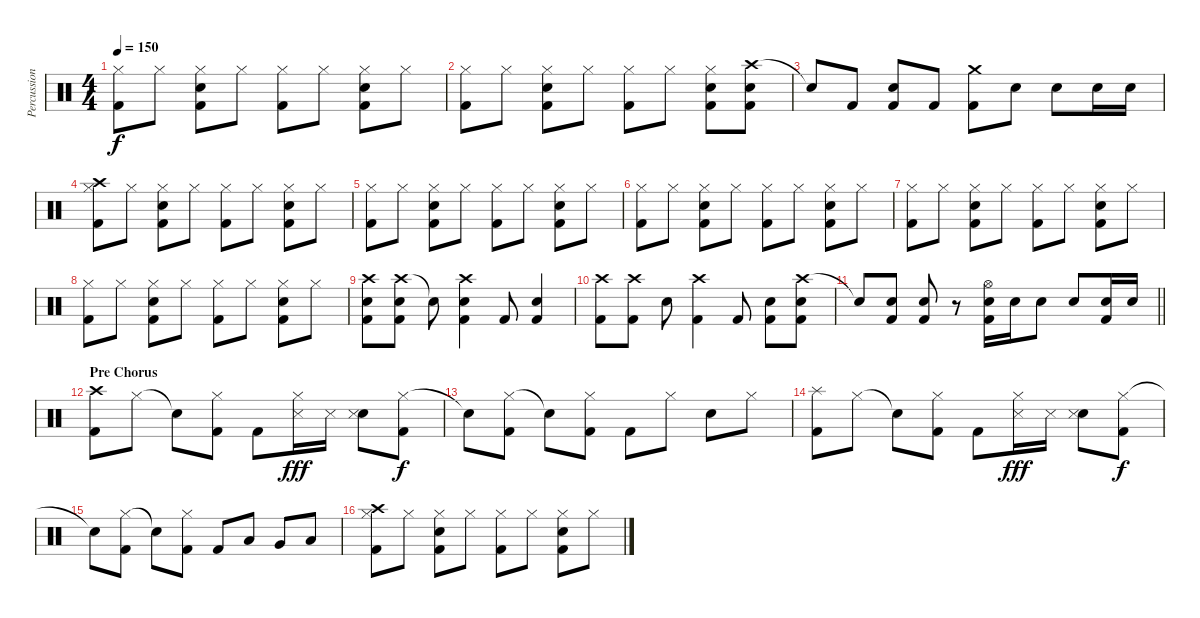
\track ("Percussion" "Percussion") {instrument percussion}
\staff {score}
\articulation defaults
\ts (4 4)
\tempo 150
\clef neutral
\ks c
("Hi-Hat (closed)" "Kick (hit) 2").8{dy f} "Hi-Hat (closed)".8 ("Hi-Hat (closed)" "Snare (hit) 2" "Kick (hit) 2").8 "Hi-Hat (closed)".8 ("Hi-Hat (closed)" "Kick (hit) 2").8 "Hi-Hat (closed)".8 ("Hi-Hat (closed)" "Snare (hit) 2" "Kick (hit) 2").8 "Hi-Hat (closed)".8 |
("Hi-Hat (closed)" "Kick (hit) 2").8 "Hi-Hat (closed)".8 ("Hi-Hat (closed)" "Snare (hit) 2" "Kick (hit) 2").8 "Hi-Hat (closed)".8 ("Hi-Hat (closed)" "Kick (hit) 2").8 "Hi-Hat (closed)".8 ("Hi-Hat (closed)" "Snare (hit) 2" "Kick (hit) 2").8 ("Crash high (hit)" "Snare (hit) 2" "Kick (hit) 2").8 |
"Snare (hit)"{t}.8 "Kick (hit) 2".8 ("Snare (hit) 2" "Kick (hit) 2").8 "Kick (hit) 2".8 ("Crash medium (hit)" "Kick (hit) 2").8 "Snare (hit) 2".8 "Snare (hit) 2".8 "Snare (hit) 2".16 "Snare (hit) 2".16 |
("Hi-Hat (closed)" "Crash high (hit)" "Kick (hit) 2").8 "Hi-Hat (closed)".8 ("Hi-Hat (closed)" "Snare (hit) 2" "Kick (hit) 2").8 "Hi-Hat (closed)".8 ("Hi-Hat (closed)" "Kick (hit) 2").8 "Hi-Hat (closed)".8 ("Hi-Hat (closed)" "Snare (hit) 2" "Kick (hit) 2").8 "Hi-Hat (closed)".8 |
("Hi-Hat (closed)" "Kick (hit) 2").8 "Hi-Hat (closed)".8 ("Hi-Hat (closed)" "Snare (hit) 2" "Kick (hit) 2").8 "Hi-Hat (closed)".8 ("Hi-Hat (closed)" "Kick (hit) 2").8 "Hi-Hat (closed)".8 ("Hi-Hat (closed)" "Snare (hit) 2" "Kick (hit) 2").8 "Hi-Hat (closed)".8 |
("Hi-Hat (closed)" "Kick (hit) 2").8 "Hi-Hat (closed)".8 ("Hi-Hat (closed)" "Snare (hit) 2" "Kick (hit) 2").8 "Hi-Hat (closed)".8 ("Hi-Hat (closed)" "Kick (hit) 2").8 "Hi-Hat (closed)".8 ("Hi-Hat (closed)" "Snare (hit) 2" "Kick (hit) 2").8 "Hi-Hat (closed)".8 |
("Hi-Hat (closed)" "Kick (hit) 2").8 "Hi-Hat (closed)".8 ("Hi-Hat (closed)" "Snare (hit) 2" "Kick (hit) 2").8 "Hi-Hat (closed)".8 ("Hi-Hat (closed)" "Kick (hit) 2").8 "Hi-Hat (closed)".8 ("Hi-Hat (closed)" "Snare (hit) 2" "Kick (hit) 2").8 "Hi-Hat (closed)".8 |
("Hi-Hat (closed)" "Kick (hit) 2").8 "Hi-Hat (closed)".8 ("Hi-Hat (closed)" "Snare (hit) 2" "Kick (hit) 2").8 "Hi-Hat (closed)".8 ("Hi-Hat (closed)" "Kick (hit) 2").8 "Hi-Hat (closed)".8 ("Hi-Hat (closed)" "Snare (hit) 2" "Kick (hit) 2").8 "Hi-Hat (closed)".8 |
("Crash high (hit)" "Snare (hit) 2" "Kick (hit) 2").8 ("Crash high (hit)" "Snare (hit) 2" "Kick (hit) 2").8 "Snare (hit)"{t}.8 ("Crash high (hit)" "Snare (hit) 2" "Kick (hit) 2").4 "Kick (hit) 2".8 ("Snare (hit) 2" "Kick (hit) 2").4 |
("Crash high (hit)" "Kick (hit) 2").8 ("Crash high (hit)" "Kick (hit) 2").8 "Snare (hit) 2".8 ("Crash high (hit)" "Kick (hit) 2").4 "Kick (hit) 2".8 ("Snare (hit) 2" "Kick (hit) 2").8 ("Crash high (hit)" "Snare (hit) 2" "Kick (hit) 2").8 |
\barLineRight lightlight "Snare (hit)"{t}.8
("Snare (hit) 2" "Kick (hit) 2").8 ("Snare (hit) 2" "Kick (hit) 2").8 r.8 ("Hi-Hat (open)" "Snare (hit) 2" "Kick (hit) 2").16 "Snare (hit) 2".16 "Snare (hit) 2".8 "Snare (hit) 2".8 ("Snare (hit) 2" "Kick (hit) 2").16 "Snare (hit) 2".16 |
\section ("" "Pre Chorus")
("Crash high (hit)" "Kick (hit) 2").8 "Hi-Hat (closed)".8 "Snare (hit)"{t}.8 ("Hi-Hat (closed)" "Kick (hit) 2").8 "Kick (hit) 2".8 ("Hi-Hat (closed)" "Metronome (hit)").16{dy fff} "Metronome (hit)".16 ("Snare (hit) 2" "Metronome (hit)").8 ("Hi-Hat (closed)" "Kick (hit) 2").8{dy f} |
"Snare (hit)"{t}.8 ("Hi-Hat (closed)" "Kick (hit) 2").8 "Snare (hit)"{t}.8 ("Hi-Hat (closed)" "Kick (hit) 2").8 "Kick (hit) 2".8 "Hi-Hat (closed)".8 "Snare (hit) 2".8 "Hi-Hat (closed)".8 |
("Splash (hit)" "Kick (hit) 2").8 "Hi-Hat (closed)".8 "Snare (hit)"{t}.8 ("Hi-Hat (closed)" "Kick (hit) 2").8 "Kick (hit) 2".8 ("Hi-Hat (closed)" "Metronome (hit)").16{dy fff} "Metronome (hit)".16 ("Snare (hit) 2" "Metronome (hit)").8 ("Hi-Hat (closed)" "Kick (hit) 2").8{dy f} |
"Snare (hit)"{t}.8 ("Hi-Hat (closed)" "Kick (hit) 2").8 "Snare (hit)"{t}.8 ("Hi-Hat (closed)" "Kick (hit) 2").8 "Kick (hit) 2".8 "Low Tom (hit)".8 "Very Low Tom (hit)".8 "Low Floor Tom (hit)".8 |
("Hi-Hat (closed)" "Crash high (hit)" "Kick (hit) 2").8 "Hi-Hat (closed)".8 ("Hi-Hat (closed)" "Snare (hit) 2" "Kick (hit) 2").8 "Hi-Hat (closed)".8 ("Hi-Hat (closed)" "Kick (hit) 2").8 "Hi-Hat (closed)".8 ("Hi-Hat (closed)" "Snare (hit) 2" "Kick (hit) 2").8 "Hi-Hat (closed)".8
